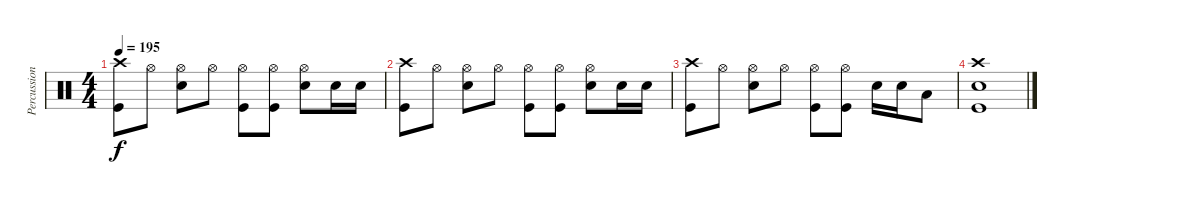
\track ("Percussion" "Percussion") {instrument percussion}
\staff {score}
\articulation defaults
\ts (4 4)
\tempo 195
\clef neutral
\ks c
("Crash high (hit)" "Kick (hit)").8{dy f} "Hi-Hat (open)".8 ("Hi-Hat (open)" "Snare (hit) 2").8 "Hi-Hat (open)".8 ("Hi-Hat (open)" "Kick (hit)").8 ("Hi-Hat (open)" "Kick (hit)").8 ("Hi-Hat (open)" "Snare (hit) 2").8 "Snare (hit) 2".16 "Snare (hit) 2".16 |
("Crash high (hit)" "Kick (hit)").8 "Hi-Hat (open)".8 ("Hi-Hat (open)" "Snare (hit) 2").8 "Hi-Hat (open)".8 ("Hi-Hat (open)" "Kick (hit)").8 ("Hi-Hat (open)" "Kick (hit)").8 ("Hi-Hat (open)" "Snare (hit) 2").8 "Snare (hit) 2".16 "Snare (hit) 2".16 |
("Crash high (hit)" "Kick (hit)").8 "Hi-Hat (open)".8 ("Hi-Hat (open)" "Snare (hit) 2").8 "Hi-Hat (open)".8 ("Hi-Hat (open)" "Kick (hit)").8 ("Hi-Hat (open)" "Kick (hit)").8 "Snare (hit) 2".16 "Snare (hit) 2".16 "Low Tom (hit)".8 |
("Crash high (hit)" "Snare (hit) 2" "Kick (hit)").1
